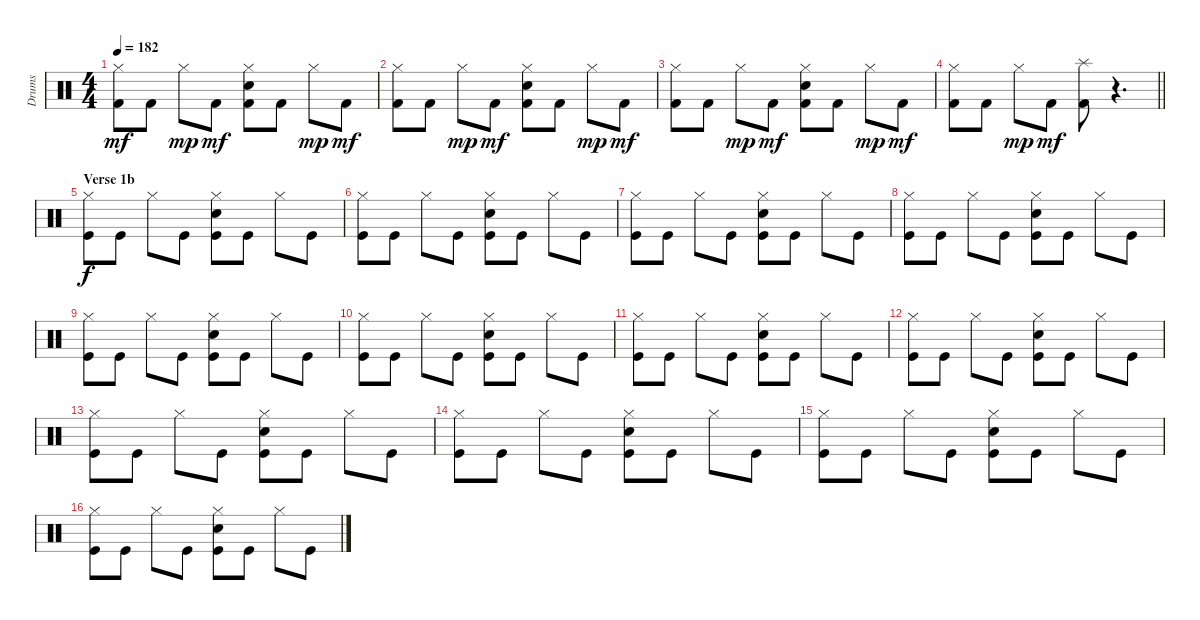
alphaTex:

\track ("Drums" "Drums") {instrument percussion}
\staff {score}
\articulation defaults
\ts (4 4)
\tempo 182
\clef neutral
\ks c
("Hi-Hat (closed)" "Kick (hit) 2").8{dy mf} "Kick (hit) 2".8 "Hi-Hat (closed)".8{dy mp} "Kick (hit) 2".8{dy mf} ("Hi-Hat (closed)" "Snare (hit) 2" "Kick (hit) 2").8 "Kick (hit) 2".8 "Hi-Hat (closed)".8{dy mp} "Kick (hit) 2".8{dy mf} |
("Hi-Hat (closed)" "Kick (hit) 2").8 "Kick (hit) 2".8 "Hi-Hat (closed)".8{dy mp} "Kick (hit) 2".8{dy mf} ("Hi-Hat (closed)" "Snare (hit) 2" "Kick (hit) 2").8 "Kick (hit) 2".8 "Hi-Hat (closed)".8{dy mp} "Kick (hit) 2".8{dy mf} |
("Hi-Hat (closed)" "Kick (hit) 2").8 "Kick (hit) 2".8 "Hi-Hat (closed)".8{dy mp} "Kick (hit) 2".8{dy mf} ("Hi-Hat (closed)" "Snare (hit) 2" "Kick (hit) 2").8 "Kick (hit) 2".8 "Hi-Hat (closed)".8{dy mp} "Kick (hit) 2".8{dy mf} |
\barLineRight lightlight
("Hi-Hat (closed)" "Kick (hit) 2").8 "Kick (hit) 2".8 "Hi-Hat (closed)".8{dy mp} "Kick (hit) 2".8{dy mf} ("Splash (hit)" "Kick (hit) 2").8 r.4{d} |
\section ("" "Verse 1b")
("Hi-Hat (closed)" "Kick (hit)").8{dy f} "Kick (hit)".8 "Hi-Hat (closed)".8 "Kick (hit)".8 ("Hi-Hat (closed)" "Snare (hit) 2" "Kick (hit)").8 "Kick (hit)".8 "Hi-Hat (closed)".8 "Kick (hit)".8 |
("Hi-Hat (closed)" "Kick (hit)").8 "Kick (hit)".8 "Hi-Hat (closed)".8 "Kick (hit)".8 ("Hi-Hat (closed)" "Snare (hit) 2" "Kick (hit)").8 "Kick (hit)".8 "Hi-Hat (closed)".8 "Kick (hit)".8 |
("Hi-Hat (closed)" "Kick (hit)").8 "Kick (hit)".8 "Hi-Hat (closed)".8 "Kick (hit)".8 ("Hi-Hat (closed)" "Snare (hit) 2" "Kick (hit)").8 "Kick (hit)".8 "Hi-Hat (closed)".8 "Kick (hit)".8 |
("Hi-Hat (closed)" "Kick (hit)").8 "Kick (hit)".8 "Hi-Hat (closed)".8 "Kick (hit)".8 ("Hi-Hat (closed)" "Snare (hit) 2" "Kick (hit)").8 "Kick (hit)".8 "Hi-Hat (closed)".8 "Kick (hit)".8 |
("Hi-Hat (closed)" "Kick (hit)").8 "Kick (hit)".8 "Hi-Hat (closed)".8 "Kick (hit)".8 ("Hi-Hat (closed)" "Snare (hit) 2" "Kick (hit)").8 "Kick (hit)".8 "Hi-Hat (closed)".8 "Kick (hit)".8 |
("Hi-Hat (closed)" "Kick (hit)").8 "Kick (hit)".8 "Hi-Hat (closed)".8 "Kick (hit)".8 ("Hi-Hat (closed)" "Snare (hit) 2" "Kick (hit)").8 "Kick (hit)".8 "Hi-Hat (closed)".8 "Kick (hit)".8 |
("Hi-Hat (closed)" "Kick (hit)").8 "Kick (hit)".8 "Hi-Hat (closed)".8 "Kick (hit)".8 ("Hi-Hat (closed)" "Snare (hit) 2" "Kick (hit)").8 "Kick (hit)".8 "Hi-Hat (closed)".8 "Kick (hit)".8 |
("Hi-Hat (closed)" "Kick (hit)").8 "Kick (hit)".8 "Hi-Hat (closed)".8 "Kick (hit)".8 ("Hi-Hat (closed)" "Snare (hit) 2" "Kick (hit)").8 "Kick (hit)".8 "Hi-Hat (closed)".8 "Kick (hit)".8 |
("Hi-Hat (closed)" "Kick (hit)").8 "Kick (hit)".8 "Hi-Hat (closed)".8 "Kick (hit)".8 ("Hi-Hat (closed)" "Snare (hit) 2" "Kick (hit)").8 "Kick (hit)".8 "Hi-Hat (closed)".8 "Kick (hit)".8 |
("Hi-Hat (closed)" "Kick (hit)").8 "Kick (hit)".8 "Hi-Hat (closed)".8 "Kick (hit)".8 ("Hi-Hat (closed)" "Snare (hit) 2" "Kick (hit)").8 "Kick (hit)".8 "Hi-Hat (closed)".8 "Kick (hit)".8 |
("Hi-Hat (closed)" "Kick (hit)").8 "Kick (hit)".8 "Hi-Hat (closed)".8 "Kick (hit)".8 ("Hi-Hat (closed)" "Snare (hit) 2" "Kick (hit)").8 "Kick (hit)".8 "Hi-Hat (closed)".8 "Kick (hit)".8 |
("Hi-Hat (closed)" "Kick (hit)").8 "Kick (hit)".8 "Hi-Hat (closed)".8 "Kick (hit)".8 ("Hi-Hat (closed)" "Snare (hit) 2" "Kick (hit)").8 "Kick (hit)".8 "Hi-Hat (closed)".8 "Kick (hit)".8
